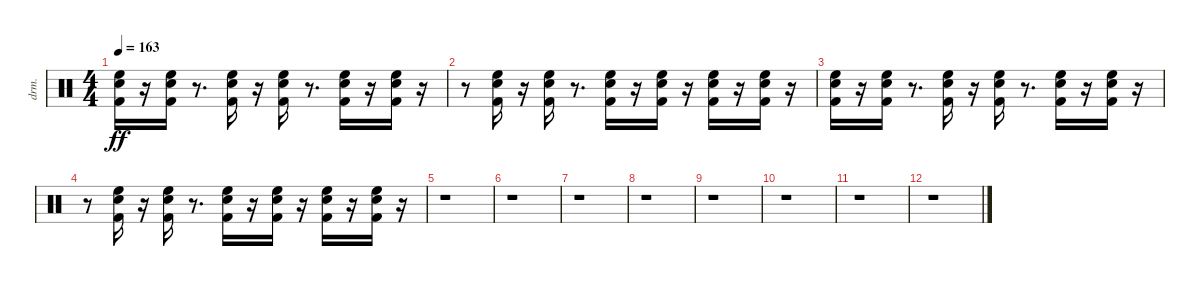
\bracketExtendMode nobrackets
\track ("EZdrummer 3" "drm.") {instrument percussion}
\staff {score}
\articulation defaults
\ts (4 4)
\tempo 163
\clef neutral
\ks aminor
("Kick (hit) 2" "Snare (hit) 2" "High Floor Tom (hit)").16{dy ff} r.16 ("Kick (hit) 2" "Snare (hit) 2" "High Floor Tom (hit)").16 r.8{d} ("Kick (hit) 2" "Snare (hit) 2" "High Floor Tom (hit)").16 r.16 ("Kick (hit) 2" "Snare (hit) 2" "High Floor Tom (hit)").16 r.8{d} ("Kick (hit) 2" "Snare (hit) 2" "High Floor Tom (hit)").16 r.16 ("Kick (hit) 2" "Snare (hit) 2" "High Floor Tom (hit)").16 r.16 |
r.8 ("Kick (hit) 2" "Snare (hit) 2" "High Floor Tom (hit)").16 r.16 ("Kick (hit) 2" "Snare (hit) 2" "High Floor Tom (hit)").16 r.8{d} ("Kick (hit) 2" "Snare (hit) 2" "High Floor Tom (hit)").16 r.16 ("Kick (hit) 2" "Snare (hit) 2" "High Floor Tom (hit)").16 r.16 ("Kick (hit) 2" "Snare (hit) 2" "High Floor Tom (hit)").16 r.16 ("Kick (hit) 2" "Snare (hit) 2" "High Floor Tom (hit)").16 r.16 |
("Kick (hit) 2" "Snare (hit) 2" "High Floor Tom (hit)").16 r.16 ("Kick (hit) 2" "Snare (hit) 2" "High Floor Tom (hit)").16 r.8{d} ("Kick (hit) 2" "Snare (hit) 2" "High Floor Tom (hit)").16 r.16 ("Kick (hit) 2" "Snare (hit) 2" "High Floor Tom (hit)").16 r.8{d} ("Kick (hit) 2" "Snare (hit) 2" "High Floor Tom (hit)").16 r.16 ("Kick (hit) 2" "Snare (hit) 2" "High Floor Tom (hit)").16 r.16 |
r.8 ("Kick (hit) 2" "Snare (hit) 2" "High Floor Tom (hit)").16 r.16 ("Kick (hit) 2" "Snare (hit) 2" "High Floor Tom (hit)").16 r.8{d} ("Kick (hit) 2" "Snare (hit) 2" "High Floor Tom (hit)").16 r.16 ("Kick (hit) 2" "Snare (hit) 2" "High Floor Tom (hit)").16 r.16 ("Kick (hit) 2" "Snare (hit) 2" "High Floor Tom (hit)").16 r.16 ("Kick (hit) 2" "Snare (hit) 2" "High Floor Tom (hit)").16 r.16 |
r.1 |
r.1 |
r.1 |
r.1 |
r.1 |
r.1 |
r.1 |
r.1
